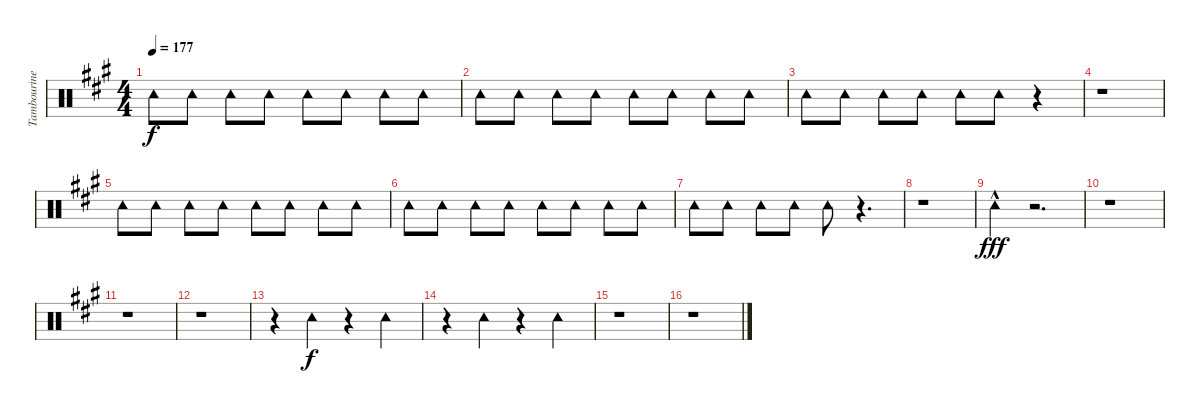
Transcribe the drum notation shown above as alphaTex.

\track ("Tambourine" "Tambourine") {instrument percussion}
\staff {score}
\articulation defaults
\ts (4 4)
\tempo 177
\clef neutral
\ks a "Tambourine (hit)".8{dy f} "Tambourine (hit)".8 "Tambourine (hit)".8 "Tambourine (hit)".8 "Tambourine (hit)".8 "Tambourine (hit)".8 "Tambourine (hit)".8 "Tambourine (hit)".8
|
"Tambourine (hit)".8 "Tambourine (hit)".8 "Tambourine (hit)".8 "Tambourine (hit)".8 "Tambourine (hit)".8 "Tambourine (hit)".8 "Tambourine (hit)".8 "Tambourine (hit)".8 |
"Tambourine (hit)".8 "Tambourine (hit)".8 "Tambourine (hit)".8 "Tambourine (hit)".8 "Tambourine (hit)".8 "Tambourine (hit)".8 r.4 |
r.1 |
"Tambourine (hit)".8 "Tambourine (hit)".8 "Tambourine (hit)".8 "Tambourine (hit)".8 "Tambourine (hit)".8 "Tambourine (hit)".8 "Tambourine (hit)".8 "Tambourine (hit)".8 |
"Tambourine (hit)".8 "Tambourine (hit)".8 "Tambourine (hit)".8 "Tambourine (hit)".8 "Tambourine (hit)".8 "Tambourine (hit)".8 "Tambourine (hit)".8 "Tambourine (hit)".8 |
"Tambourine (hit)".8 "Tambourine (hit)".8 "Tambourine (hit)".8 "Tambourine (hit)".8 "Tambourine (hit)".8 r.4{d} |
r.1 |
"Tambourine (hit)"{hac}.4{dy fff} r.2{d} |
r.1 |
r.1 |
r.1 |
r.4 "Tambourine (hit)".4{dy f} r.4 "Tambourine (hit)".4 |
r.4 "Tambourine (hit)".4 r.4 "Tambourine (hit)".4 |
r.1 |
r.1
